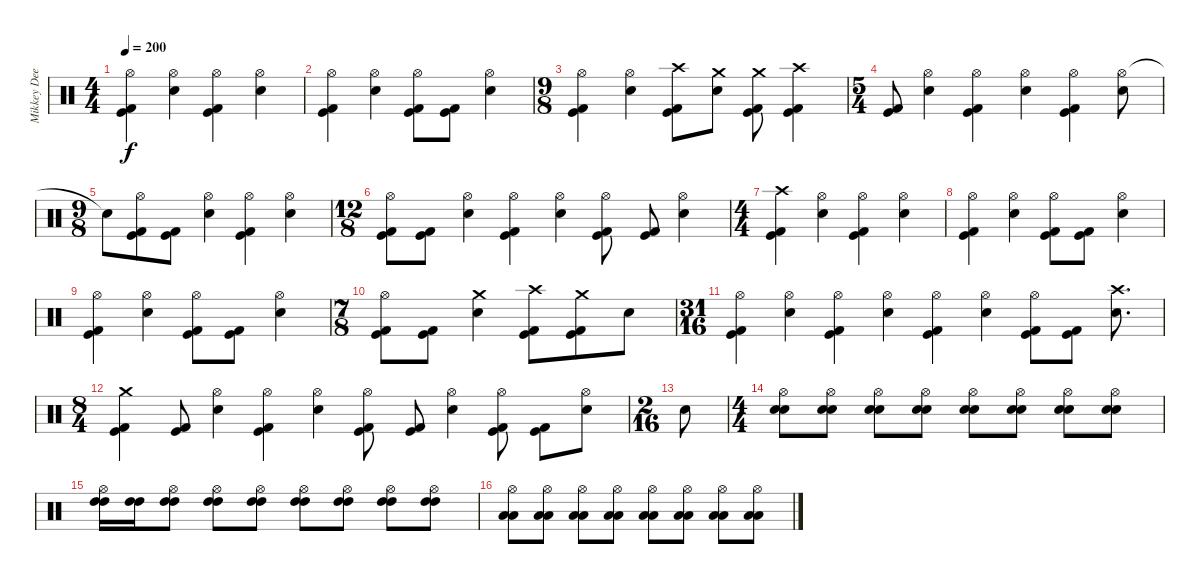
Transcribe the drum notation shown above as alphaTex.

\track ("Mikkey Dee" "Mikkey Dee") {instrument percussion}
\staff {score}
\articulation defaults
\ts (4 4)
\tempo 200
\clef neutral
\ks c
("Hi-Hat (open)" "Kick (hit)" "Kick (hit) 2").4{dy f} ("Hi-Hat (open)" "Electric Snare (hit)").4 ("Hi-Hat (open)" "Kick (hit)" "Kick (hit) 2").4 ("Hi-Hat (open)" "Electric Snare (hit)").4 |
("Hi-Hat (open)" "Kick (hit)" "Kick (hit) 2").4 ("Hi-Hat (open)" "Electric Snare (hit)").4 ("Hi-Hat (open)" "Kick (hit)" "Kick (hit) 2").8 ("Kick (hit)" "Kick (hit) 2").8 ("Hi-Hat (open)" "Electric Snare (hit)").4 |
\ts (9 8)
("Hi-Hat (open)" "Kick (hit)" "Kick (hit) 2").4 ("Hi-Hat (open)" "Electric Snare (hit)").4 ("Crash high (hit)" "Kick (hit)" "Kick (hit) 2").8 ("Crash medium (hit)" "Electric Snare (hit)").8 ("Crash medium (hit)" "Kick (hit)" "Kick (hit) 2").8 ("Crash high (hit)" "Kick (hit)" "Kick (hit) 2").4 |
\ts (5 4)
("Kick (hit)" "Kick (hit) 2").8 ("Hi-Hat (open)" "Electric Snare (hit)").4 ("Hi-Hat (open)" "Kick (hit)" "Kick (hit) 2").4 ("Hi-Hat (open)" "Electric Snare (hit)").4 ("Hi-Hat (open)" "Kick (hit)" "Kick (hit) 2").4 ("Hi-Hat (open)" "Electric Snare (hit)").8 |
\ts (9 8)
"Snare (hit) 2"{t}.8 ("Hi-Hat (open)" "Kick (hit)" "Kick (hit) 2").8 ("Kick (hit)" "Kick (hit) 2").8 ("Hi-Hat (open)" "Electric Snare (hit)").4 ("Hi-Hat (open)" "Kick (hit)" "Kick (hit) 2").4 ("Hi-Hat (open)" "Electric Snare (hit)").4 |
\ts (12 8)
("Hi-Hat (open)" "Kick (hit)" "Kick (hit) 2").8 ("Kick (hit)" "Kick (hit) 2").8 ("Hi-Hat (open)" "Electric Snare (hit)").4 ("Hi-Hat (open)" "Kick (hit)" "Kick (hit) 2").4 ("Hi-Hat (open)" "Electric Snare (hit)").4 ("Hi-Hat (open)" "Kick (hit)" "Kick (hit) 2").8 ("Kick (hit)" "Kick (hit) 2").8 ("Hi-Hat (open)" "Electric Snare (hit)").4 |
\ts (4 4)
("Crash high (hit)" "Kick (hit)" "Kick (hit) 2").4 ("Hi-Hat (open)" "Electric Snare (hit)").4 ("Hi-Hat (open)" "Kick (hit)" "Kick (hit) 2").4 ("Hi-Hat (open)" "Electric Snare (hit)").4 |
("Hi-Hat (open)" "Kick (hit)" "Kick (hit) 2").4 ("Hi-Hat (open)" "Electric Snare (hit)").4 ("Hi-Hat (open)" "Kick (hit)" "Kick (hit) 2").8 ("Kick (hit)" "Kick (hit) 2").8 ("Hi-Hat (open)" "Electric Snare (hit)").4 |
("Hi-Hat (open)" "Kick (hit)" "Kick (hit) 2").4 ("Hi-Hat (open)" "Electric Snare (hit)").4 ("Hi-Hat (open)" "Kick (hit)" "Kick (hit) 2").8 ("Kick (hit)" "Kick (hit) 2").8 ("Hi-Hat (open)" "Electric Snare (hit)").4 |
\ts (7 8)
("Hi-Hat (open)" "Kick (hit)" "Kick (hit) 2").8 ("Kick (hit)" "Kick (hit) 2").8 ("Crash medium (hit)" "Electric Snare (hit)").4 ("Crash high (hit)" "Kick (hit)" "Kick (hit) 2").8 ("Crash medium (hit)" "Kick (hit)" "Kick (hit) 2").8 "Electric Snare (hit)".8 |
\ts (31 16)
("Hi-Hat (open)" "Kick (hit)" "Kick (hit) 2").4 ("Hi-Hat (open)" "Electric Snare (hit)").4 ("Hi-Hat (open)" "Kick (hit)" "Kick (hit) 2").4 ("Hi-Hat (open)" "Electric Snare (hit)").4 ("Hi-Hat (open)" "Kick (hit)" "Kick (hit) 2").4 ("Hi-Hat (open)" "Electric Snare (hit)").4 ("Hi-Hat (open)" "Kick (hit)" "Kick (hit) 2").8 ("Kick (hit)" "Kick (hit) 2").8 ("Crash high (hit)" "Electric Snare (hit)").8{d} |
\ts (8 4)
("Crash medium (hit)" "Kick (hit)" "Kick (hit) 2").4 ("Kick (hit)" "Kick (hit) 2").8 ("Hi-Hat (open)" "Electric Snare (hit)").4 ("Hi-Hat (open)" "Kick (hit)" "Kick (hit) 2").4 ("Hi-Hat (open)" "Electric Snare (hit)").4 ("Hi-Hat (open)" "Kick (hit)" "Kick (hit) 2").8 ("Kick (hit)" "Kick (hit) 2").8 ("Hi-Hat (open)" "Electric Snare (hit)").4 ("Hi-Hat (open)" "Kick (hit)" "Kick (hit) 2").8 ("Kick (hit)" "Kick (hit) 2").8 ("Hi-Hat (open)" "Electric Snare (hit)").8 |
\ts (2 16)
"Electric Snare (hit)".8 |
\ts (4 4)
("Hi-Hat (open)" "Electric Snare (hit)" "Electric Snare (hit)").8 ("Hi-Hat (open)" "Electric Snare (hit)" "Electric Snare (hit)").8 ("Hi-Hat (open)" "Electric Snare (hit)" "Electric Snare (hit)").8 ("Hi-Hat (open)" "Electric Snare (hit)" "Electric Snare (hit)").8 ("Hi-Hat (open)" "Electric Snare (hit)" "Electric Snare (hit)").8 ("Hi-Hat (open)" "Electric Snare (hit)" "Electric Snare (hit)").8 ("Hi-Hat (open)" "Electric Snare (hit)" "Electric Snare (hit)").8 ("Hi-Hat (open)" "Electric Snare (hit)" "Electric Snare (hit)").8 |
("Hi-Hat (open)" "High Tom (hit)" "High Tom (hit)").16 ("High Tom (hit)" "High Tom (hit)").16 ("Hi-Hat (open)" "High Tom (hit)" "High Tom (hit)").8 ("Hi-Hat (open)" "High Tom (hit)" "High Tom (hit)").8 ("Hi-Hat (open)" "High Tom (hit)" "High Tom (hit)").8 ("Hi-Hat (open)" "High Tom (hit)" "High Tom (hit)").8 ("Hi-Hat (open)" "High Tom (hit)" "High Tom (hit)").8 ("Hi-Hat (open)" "High Tom (hit)" "High Tom (hit)").8 ("Hi-Hat (open)" "High Tom (hit)" "High Tom (hit)").8 |
("Hi-Hat (open)" "Low Tom (hit)" "Low Tom (hit)").8 ("Hi-Hat (open)" "Low Tom (hit)" "Low Tom (hit)").8 ("Hi-Hat (open)" "Low Tom (hit)" "Low Tom (hit)").8 ("Hi-Hat (open)" "Low Tom (hit)" "Low Tom (hit)").8 ("Hi-Hat (open)" "Low Tom (hit)" "Low Tom (hit)").8 ("Hi-Hat (open)" "Low Tom (hit)" "Low Tom (hit)").8 ("Hi-Hat (open)" "Low Tom (hit)" "Low Tom (hit)").8 ("Hi-Hat (open)" "Low Tom (hit)" "Low Tom (hit)").8
